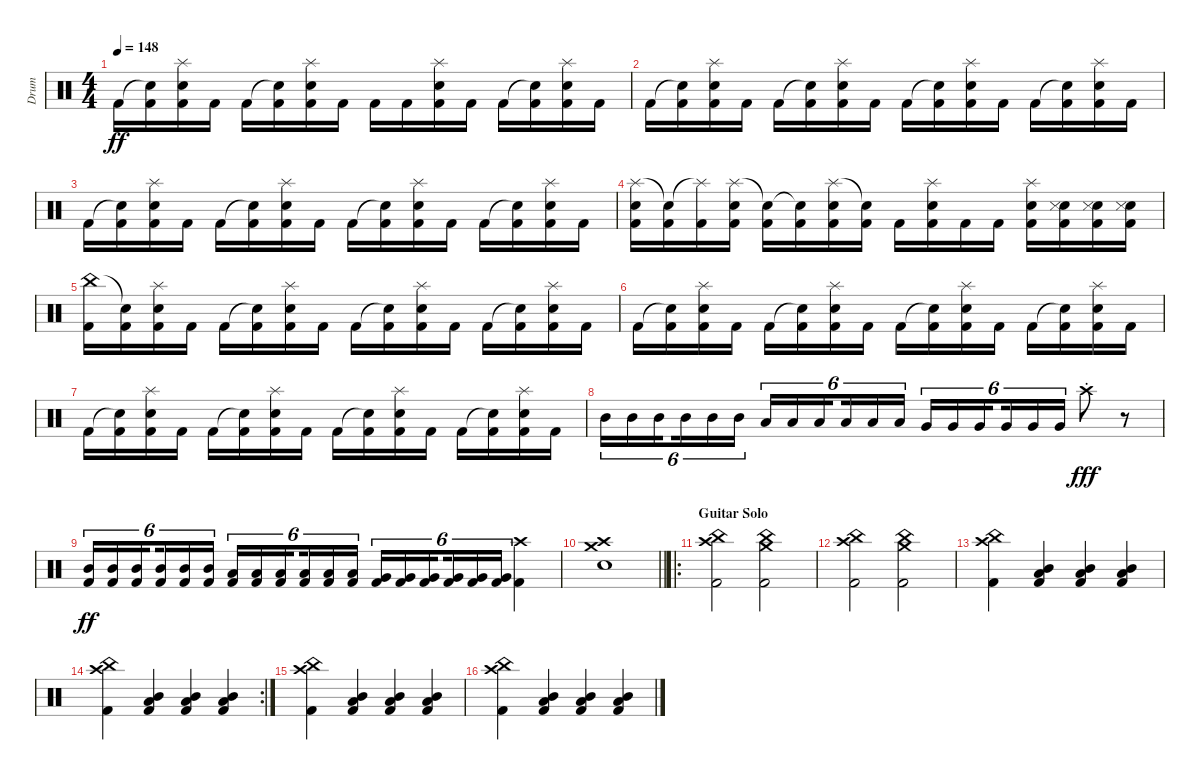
\track ("Drum" "Drum") {instrument percussion}
\staff {score}
\articulation defaults
\ts (4 4)
\tempo 148
\clef neutral
\ks c "Kick (hit) 2".16{dy ff}
("Snare (hit)"{t} "Kick (hit) 2").16 ("Splash (hit)" "Snare (hit) 2" "Kick (hit) 2").16 "Kick (hit) 2".16 "Kick (hit) 2".16 ("Snare (hit)"{t} "Kick (hit) 2").16 ("Splash (hit)" "Snare (hit) 2" "Kick (hit) 2").16 "Kick (hit) 2".16 "Kick (hit) 2".16 "Kick (hit) 2".16 ("Splash (hit)" "Snare (hit) 2" "Kick (hit) 2").16 "Kick (hit) 2".16 "Kick (hit) 2".16 ("Snare (hit)"{t} "Kick (hit) 2").16 ("Splash (hit)" "Snare (hit) 2" "Kick (hit) 2").16 "Kick (hit) 2".16 |
"Kick (hit) 2".16 ("Snare (hit)"{t} "Kick (hit) 2").16 ("Splash (hit)" "Snare (hit) 2" "Kick (hit) 2").16 "Kick (hit) 2".16 "Kick (hit) 2".16 ("Snare (hit)"{t} "Kick (hit) 2").16 ("Splash (hit)" "Snare (hit) 2" "Kick (hit) 2").16 "Kick (hit) 2".16 "Kick (hit) 2".16 ("Snare (hit)"{t} "Kick (hit) 2").16 ("Splash (hit)" "Snare (hit) 2" "Kick (hit) 2").16 "Kick (hit) 2".16 "Kick (hit) 2".16 ("Snare (hit)"{t} "Kick (hit) 2").16 ("Splash (hit)" "Snare (hit) 2" "Kick (hit) 2").16 "Kick (hit) 2".16 |
"Kick (hit) 2".16 ("Snare (hit)"{t} "Kick (hit) 2").16 ("Splash (hit)" "Snare (hit) 2" "Kick (hit) 2").16 "Kick (hit) 2".16 "Kick (hit) 2".16 ("Snare (hit)"{t} "Kick (hit) 2").16 ("Splash (hit)" "Snare (hit) 2" "Kick (hit) 2").16 "Kick (hit) 2".16 "Kick (hit) 2".16 ("Snare (hit)"{t} "Kick (hit) 2").16 ("Splash (hit)" "Snare (hit) 2" "Kick (hit) 2").16 "Kick (hit) 2".16 "Kick (hit) 2".16 ("Snare (hit)"{t} "Kick (hit) 2").16 ("Splash (hit)" "Snare (hit) 2" "Kick (hit) 2").16 "Kick (hit) 2".16 |
("Splash (hit)" "Snare (hit) 2" "Kick (hit) 2").16 ("Snare (hit)"{t} "Kick (hit) 2").16 ("Splash (hit)"{t} "Kick (hit) 2").16 ("Splash (hit)" "Snare (hit) 2" "Kick (hit) 2").16 ("Snare (hit)"{t} "Kick (hit) 2").16 ("Snare (hit)"{t} "Kick (hit) 2").16 ("Splash (hit)" "Snare (hit) 2" "Kick (hit) 2").16 ("Snare (hit)"{t} "Kick (hit) 2").16 "Kick (hit) 2".16 ("Splash (hit)" "Snare (hit) 2" "Kick (hit) 2").16 "Kick (hit) 2".16 "Kick (hit) 2".16 ("Splash (hit)" "Snare (hit) 2" "Kick (hit) 2").16 ("Snare (hit) 2" "Metronome (hit)" "Kick (hit) 2").16 ("Snare (hit) 2" "Metronome (hit)" "Kick (hit) 2").16 ("Snare (hit) 2" "Metronome (hit)" "Kick (hit) 2").16 |
("China (hit)" "Kick (hit) 2").16 ("Snare (hit)"{t} "Kick (hit) 2").16 ("Splash (hit)" "Snare (hit) 2" "Kick (hit) 2").16 "Kick (hit) 2".16 "Kick (hit) 2".16 ("Snare (hit)"{t} "Kick (hit) 2").16 ("Splash (hit)" "Snare (hit) 2" "Kick (hit) 2").16 "Kick (hit) 2".16 "Kick (hit) 2".16 ("Snare (hit)"{t} "Kick (hit) 2").16 ("Splash (hit)" "Snare (hit) 2" "Kick (hit) 2").16 "Kick (hit) 2".16 "Kick (hit) 2".16 ("Snare (hit)"{t} "Kick (hit) 2").16 ("Splash (hit)" "Snare (hit) 2" "Kick (hit) 2").16 "Kick (hit) 2".16 |
"Kick (hit) 2".16 ("Snare (hit)"{t} "Kick (hit) 2").16 ("Splash (hit)" "Snare (hit) 2" "Kick (hit) 2").16 "Kick (hit) 2".16 "Kick (hit) 2".16 ("Snare (hit)"{t} "Kick (hit) 2").16 ("Splash (hit)" "Snare (hit) 2" "Kick (hit) 2").16 "Kick (hit) 2".16 "Kick (hit) 2".16 ("Snare (hit)"{t} "Kick (hit) 2").16 ("Splash (hit)" "Snare (hit) 2" "Kick (hit) 2").16 "Kick (hit) 2".16 "Kick (hit) 2".16 ("Snare (hit)"{t} "Kick (hit) 2").16 ("Splash (hit)" "Snare (hit) 2" "Kick (hit) 2").16 "Kick (hit) 2".16 |
"Kick (hit) 2".16 ("Snare (hit)"{t} "Kick (hit) 2").16 ("Splash (hit)" "Snare (hit) 2" "Kick (hit) 2").16 "Kick (hit) 2".16 "Kick (hit) 2".16 ("Snare (hit)"{t} "Kick (hit) 2").16 ("Splash (hit)" "Snare (hit) 2" "Kick (hit) 2").16 "Kick (hit) 2".16 "Kick (hit) 2".16 ("Snare (hit)"{t} "Kick (hit) 2").16 ("Splash (hit)" "Snare (hit) 2" "Kick (hit) 2").16 "Kick (hit) 2".16 "Kick (hit) 2".16 ("Snare (hit)"{t} "Kick (hit) 2").16 ("Splash (hit)" "Snare (hit) 2" "Kick (hit) 2").16 "Kick (hit) 2".16 |
"Mid Tom (hit)".16{tu (6 4)} "Mid Tom (hit)".16{tu (6 4)} "Mid Tom (hit)".16{tu (6 4) beam splitsecondary} "Mid Tom (hit)".16{tu (6 4)} "Mid Tom (hit)".16{tu (6 4)} "Mid Tom (hit)".16{tu (6 4)} "Low Tom (hit)".16{tu (6 4)} "Low Tom (hit)".16{tu (6 4)} "Low Tom (hit)".16{tu (6 4) beam splitsecondary} "Low Tom (hit)".16{tu (6 4)} "Low Tom (hit)".16{tu (6 4)} "Low Tom (hit)".16{tu (6 4)} "Very Low Tom (hit)".16{tu (6 4)} "Very Low Tom (hit)".16{tu (6 4)} "Very Low Tom (hit)".16{tu (6 4) beam splitsecondary} "Very Low Tom (hit)".16{tu (6 4)} "Very Low Tom (hit)".16{tu (6 4)} "Very Low Tom (hit)".16{tu (6 4)} "Crash high (hit)"{st}.8{dy fff} r.8 |
("Kick (hit) 2" "Mid Tom (hit)").16{tu (6 4) dy ff} ("Kick (hit) 2" "Mid Tom (hit)").16{tu (6 4)} ("Kick (hit) 2" "Mid Tom (hit)").16{tu (6 4) beam splitsecondary} ("Kick (hit) 2" "Mid Tom (hit)").16{tu (6 4)} ("Kick (hit) 2" "Mid Tom (hit)").16{tu (6 4)} ("Kick (hit) 2" "Mid Tom (hit)").16{tu (6 4)} ("Kick (hit) 2" "Low Tom (hit)").16{tu (6 4)} ("Kick (hit) 2" "Low Tom (hit)").16{tu (6 4)} ("Kick (hit) 2" "Low Tom (hit)").16{tu (6 4) beam splitsecondary} ("Kick (hit) 2" "Low Tom (hit)").16{tu (6 4)} ("Kick (hit) 2" "Low Tom (hit)").16{tu (6 4)} ("Kick (hit) 2" "Low Tom (hit)").16{tu (6 4)} ("Kick (hit) 2" "Very Low Tom (hit)").16{tu (6 4)} ("Kick (hit) 2" "Very Low Tom (hit)").16{tu (6 4)} ("Kick (hit) 2" "Very Low Tom (hit)").16{tu (6 4) beam splitsecondary} ("Kick (hit) 2" "Very Low Tom (hit)").16{tu (6 4)} ("Kick (hit) 2" "Very Low Tom (hit)").16{tu (6 4)} ("Kick (hit) 2" "Very Low Tom (hit)").16{tu (6 4)} ("Kick (hit) 2" "Crash high (hit)").4 |
\barLineRight lightlight
("Crash medium (hit)" "Crash high (hit)" "Snare (hit) 2").1 |
\ro
\section ("" "Guitar Solo")
("Crash high (hit)" "China (hit)" "Kick (hit) 2").2{volume 14} ("Crash medium (hit)" "China (hit)" "Kick (hit) 2").2 |
("Crash high (hit)" "China (hit)" "Kick (hit) 2").2 ("Crash medium (hit)" "China (hit)" "Kick (hit) 2").2 |
("Crash high (hit)" "China (hit)" "Kick (hit) 2").4 ("Low Tom (hit)" "Mid Tom (hit)" "Kick (hit) 2").4 ("Low Tom (hit)" "Mid Tom (hit)" "Kick (hit) 2").4 ("Low Tom (hit)" "Mid Tom (hit)" "Kick (hit) 2").4 |
\rc 2
("Crash high (hit)" "China (hit)" "Kick (hit) 2").4 ("Low Tom (hit)" "Mid Tom (hit)" "Kick (hit) 2").4 ("Low Tom (hit)" "Mid Tom (hit)" "Kick (hit) 2").4 ("Low Tom (hit)" "Mid Tom (hit)" "Kick (hit) 2").4 |
("Crash high (hit)" "China (hit)" "Kick (hit) 2").4 ("Low Tom (hit)" "Mid Tom (hit)" "Kick (hit) 2").4 ("Low Tom (hit)" "Mid Tom (hit)" "Kick (hit) 2").4 ("Low Tom (hit)" "Mid Tom (hit)" "Kick (hit) 2").4 |
("Crash high (hit)" "China (hit)" "Kick (hit) 2").4 ("Low Tom (hit)" "Mid Tom (hit)" "Kick (hit) 2").4 ("Low Tom (hit)" "Mid Tom (hit)" "Kick (hit) 2").4 ("Low Tom (hit)" "Mid Tom (hit)" "Kick (hit) 2").4
